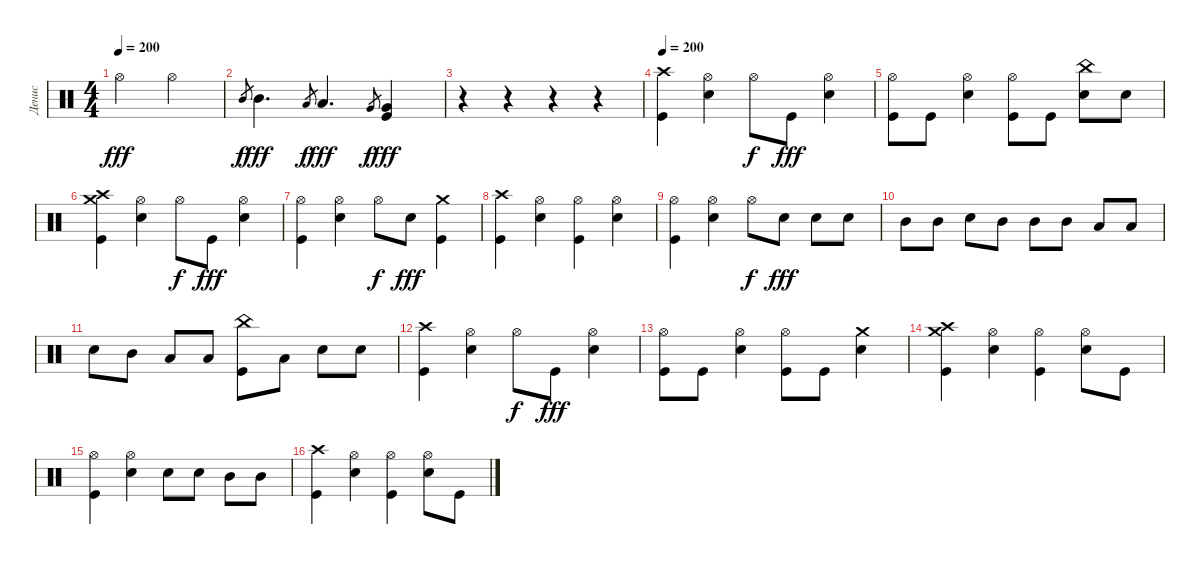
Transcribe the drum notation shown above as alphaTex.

\track ("Денис" "Денис") {instrument percussion}
\staff {score}
\articulation defaults
\ts (4 4)
\tempo 200
\clef neutral
\ks c "Hi-Hat (open)".2{dy fff} "Hi-Hat (open)".2
|
"Mid Tom (hit)".8{gr dy f} "Mid Tom (hit)".4{d dy fff} "Low Tom (hit)".8{gr dy f} "Low Tom (hit)".4{d dy fff} "Very Low Tom (hit)".8{gr dy f} ("Very Low Tom (hit)" "Kick (hit)").4{dy fff} |
r.4 r.4 r.4 r.4 |
\tempo 200
("Crash high (hit)" "Kick (hit)").4 ("Electric Snare (hit)" "Hi-Hat (open)").4 "Hi-Hat (open)".8{dy f} "Kick (hit)".8{dy fff} ("Electric Snare (hit)" "Hi-Hat (open)").4 |
("Kick (hit)" "Hi-Hat (open)").8 "Kick (hit)".8 ("Electric Snare (hit)" "Hi-Hat (open)").4 ("Hi-Hat (open)" "Kick (hit)").8 "Kick (hit)".8 ("Electric Snare (hit)" "China (hit)").8 "Electric Snare (hit)".8 |
("Kick (hit)" "Crash high (hit)" "Crash medium (hit)").4 ("Hi-Hat (open)" "Electric Snare (hit)").4 "Hi-Hat (open)".8{dy f} "Kick (hit)".8{dy fff} ("Electric Snare (hit)" "Hi-Hat (open)").4 |
("Kick (hit)" "Hi-Hat (open)").4 ("Electric Snare (hit)" "Hi-Hat (open)").4 "Hi-Hat (open)".8{dy f} "Electric Snare (hit)".8{dy fff} ("Crash medium (hit)" "Kick (hit)").4 |
("Crash high (hit)" "Kick (hit)").4 ("Electric Snare (hit)" "Hi-Hat (open)").4 ("Hi-Hat (open)" "Kick (hit)").4 ("Electric Snare (hit)" "Hi-Hat (open)").4 |
("Kick (hit)" "Hi-Hat (open)").4 ("Electric Snare (hit)" "Hi-Hat (open)").4 "Hi-Hat (open)".8{dy f} "Electric Snare (hit)".8{dy fff} "Electric Snare (hit)".8 "Electric Snare (hit)".8 |
"Mid Tom (hit)".8 "Mid Tom (hit)".8 "Electric Snare (hit)".8 "Mid Tom (hit)".8 "Mid Tom (hit)".8 "Mid Tom (hit)".8 "Low Tom (hit)".8 "Low Tom (hit)".8 |
"Electric Snare (hit)".8 "Mid Tom (hit)".8 "Low Tom (hit)".8 "Low Tom (hit)".8 ("China (hit)" "Kick (hit)").8 "Low Tom (hit)".8 "Electric Snare (hit)".8 "Electric Snare (hit)".8 |
("Crash high (hit)" "Kick (hit)").4 ("Electric Snare (hit)" "Hi-Hat (open)").4 "Hi-Hat (open)".8{dy f} "Kick (hit)".8{dy fff} ("Electric Snare (hit)" "Hi-Hat (open)").4 |
("Kick (hit)" "Hi-Hat (open)").8 "Kick (hit)".8 ("Electric Snare (hit)" "Hi-Hat (open)").4 ("Kick (hit)" "Hi-Hat (open)").8 "Kick (hit)".8 ("Electric Snare (hit)" "Crash medium (hit)").4 |
("Crash medium (hit)" "Crash high (hit)" "Kick (hit)").4 ("Electric Snare (hit)" "Hi-Hat (open)").4 ("Hi-Hat (open)" "Kick (hit)").4 ("Electric Snare (hit)" "Hi-Hat (open)").8 "Kick (hit)".8 |
("Hi-Hat (open)" "Kick (hit)").4 ("Electric Snare (hit)" "Hi-Hat (open)").4 "Electric Snare (hit)".8 "Electric Snare (hit)".8 "Mid Tom (hit)".8 "Mid Tom (hit)".8 |
("Kick (hit)" "Crash high (hit)").4 ("Electric Snare (hit)" "Hi-Hat (open)").4 ("Kick (hit)" "Hi-Hat (open)").4 ("Electric Snare (hit)" "Hi-Hat (open)").8 "Kick (hit)".8
